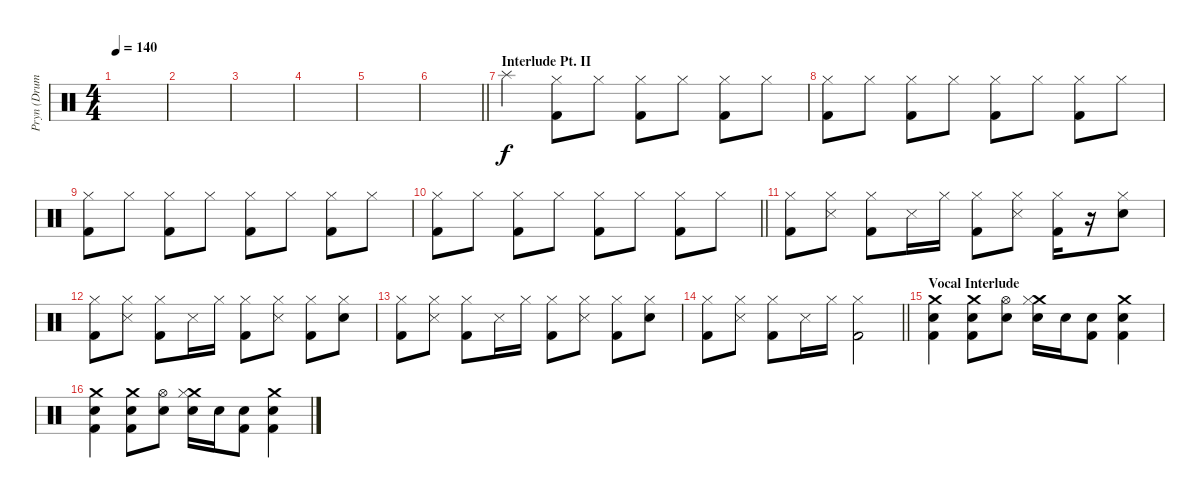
\track ("Pryn (Drums)" "Pryn (Drum") {instrument percussion}
\staff {score}
\articulation defaults
\ts (4 4)
\tempo 140
\clef neutral
\ks c
|
|
|
|
|
\barLineRight lightlight
|
\section ("" "Interlude Pt. II")
"Splash (hit)".4 ("Kick (hit) 2" "Hi-Hat (closed)").8 "Hi-Hat (closed)".8 ("Kick (hit) 2" "Hi-Hat (closed)").8 "Hi-Hat (closed)".8 ("Kick (hit) 2" "Hi-Hat (closed)").8 "Hi-Hat (closed)".8 |
("Kick (hit) 2" "Hi-Hat (closed)").8 "Hi-Hat (closed)".8 ("Kick (hit) 2" "Hi-Hat (closed)").8 "Hi-Hat (closed)".8 ("Kick (hit) 2" "Hi-Hat (closed)").8 "Hi-Hat (closed)".8 ("Kick (hit) 2" "Hi-Hat (closed)").8 "Hi-Hat (closed)".8 |
("Kick (hit) 2" "Hi-Hat (closed)").8 "Hi-Hat (closed)".8 ("Kick (hit) 2" "Hi-Hat (closed)").8 "Hi-Hat (closed)".8 ("Kick (hit) 2" "Hi-Hat (closed)").8 "Hi-Hat (closed)".8 ("Kick (hit) 2" "Hi-Hat (closed)").8 "Hi-Hat (closed)".8 |
\barLineRight lightlight
("Kick (hit) 2" "Hi-Hat (closed)").8 "Hi-Hat (closed)".8 ("Kick (hit) 2" "Hi-Hat (closed)").8 "Hi-Hat (closed)".8 ("Kick (hit) 2" "Hi-Hat (closed)").8 "Hi-Hat (closed)".8 ("Kick (hit) 2" "Hi-Hat (closed)").8 "Hi-Hat (closed)".8 |
("Kick (hit) 2" "Hi-Hat (closed)").8 ("Hi-Hat (closed)" "Snare (side stick) 3").8 ("Kick (hit) 2" "Hi-Hat (closed)").8 "Snare (side stick) 3".16 "Hi-Hat (closed)".16 ("Kick (hit) 2" "Hi-Hat (closed)").8 ("Hi-Hat (closed)" "Snare (side stick) 3").8 ("Kick (hit) 2" "Hi-Hat (closed)").16 r.16 ("Hi-Hat (closed)" "Snare (hit) 2").8 |
("Kick (hit) 2" "Hi-Hat (closed)").8 ("Hi-Hat (closed)" "Snare (side stick) 3").8 ("Kick (hit) 2" "Hi-Hat (closed)").8 "Snare (side stick) 3".16 "Hi-Hat (closed)".16 ("Kick (hit) 2" "Hi-Hat (closed)").8 ("Hi-Hat (closed)" "Snare (side stick) 3").8 ("Kick (hit) 2" "Hi-Hat (closed)").8 ("Hi-Hat (closed)" "Snare (hit) 2").8 |
("Kick (hit) 2" "Hi-Hat (closed)").8 ("Hi-Hat (closed)" "Snare (side stick) 3").8 ("Kick (hit) 2" "Hi-Hat (closed)").8 "Snare (side stick) 3".16 "Hi-Hat (closed)".16 ("Kick (hit) 2" "Hi-Hat (closed)").8 ("Hi-Hat (closed)" "Snare (side stick) 3").8 ("Kick (hit) 2" "Hi-Hat (closed)").8 ("Hi-Hat (closed)" "Snare (hit) 2").8 |
\barLineRight lightlight
("Kick (hit) 2" "Hi-Hat (closed)").8 ("Hi-Hat (closed)" "Snare (side stick) 3").8 ("Kick (hit) 2" "Hi-Hat (closed)").8 "Snare (side stick) 3".16 "Hi-Hat (closed)".16 ("Kick (hit) 2" "Hi-Hat (closed)").2 |
\section ("" "Vocal Interlude")
("Crash medium (hit)" "Snare (hit) 2" "Kick (hit) 2").4 ("Crash medium (hit)" "Snare (hit) 2" "Kick (hit) 2").8 ("Hi-Hat (open)" "Snare (hit) 2").8 ("Crash medium (hit)" "Snare (hit) 2" "Hi-Hat (closed)").16 "Snare (hit) 2".16 ("Snare (hit) 2" "Kick (hit) 2").8 ("Crash medium (hit)" "Snare (hit) 2" "Kick (hit) 2").4 |
("Crash medium (hit)" "Snare (hit) 2" "Kick (hit) 2").4 ("Crash medium (hit)" "Snare (hit) 2" "Kick (hit) 2").8 ("Hi-Hat (open)" "Snare (hit) 2").8 ("Crash medium (hit)" "Snare (hit) 2" "Hi-Hat (closed)").16 "Snare (hit) 2".16 ("Snare (hit) 2" "Kick (hit) 2").8 ("Crash medium (hit)" "Snare (hit) 2" "Kick (hit) 2").4
